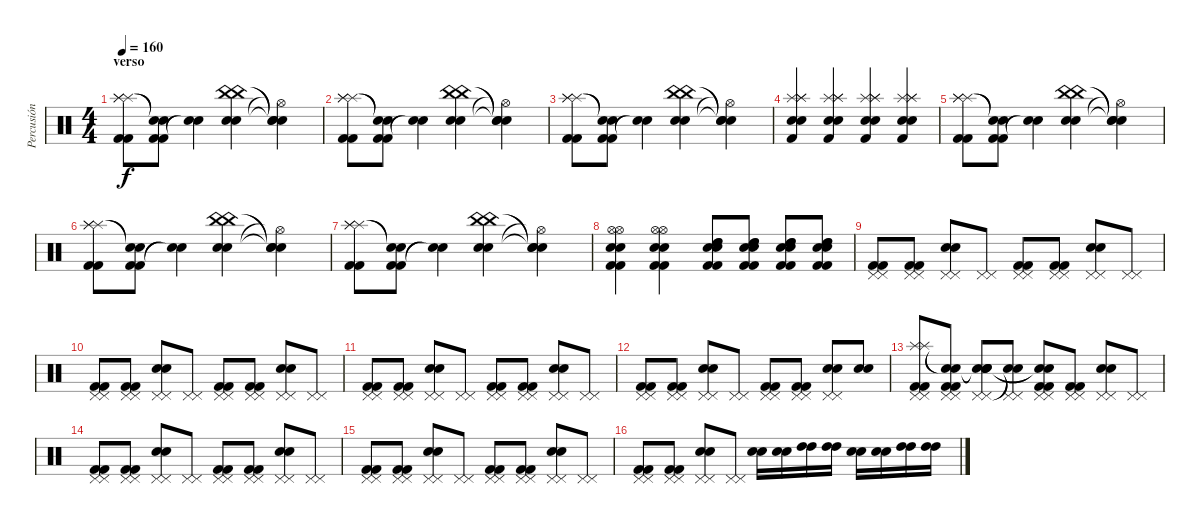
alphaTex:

\track ("Percusión" "Percusión") {instrument percussion}
\staff {score}
\articulation defaults
\ts (4 4)
\section ("" "verso")
\tempo 160
\clef neutral
\ks c
("Kick (hit) 2" "Kick (hit) 2" "Splash (hit)" "Splash (hit)" "Splash (hit)").8{dy f} ("Kick (hit) 2" "Kick (hit) 2" "Snare (hit)"{t} "Snare (hit)"{t}).8 ("Snare (hit)"{t} "Snare (hit)"{t}).4 ("Snare (hit) 2" "Snare (hit) 2" "China (hit)" "China (hit)").4 ("Hi-Hat (open)"{t} "Snare (hit)"{t} "Snare (hit)"{t} "Snare (hit)"{t}).4 |
("Kick (hit) 2" "Kick (hit) 2" "Splash (hit)" "Splash (hit)" "Splash (hit)").8 ("Kick (hit) 2" "Kick (hit) 2" "Snare (hit)"{t} "Snare (hit)"{t}).8 ("Snare (hit)"{t} "Snare (hit)"{t}).4 ("Snare (hit) 2" "Snare (hit) 2" "China (hit)" "China (hit)").4 ("Hi-Hat (open)"{t} "Snare (hit)"{t} "Snare (hit)"{t} "Snare (hit)"{t}).4 |
("Kick (hit) 2" "Kick (hit) 2" "Splash (hit)" "Splash (hit)" "Splash (hit)").8 ("Kick (hit) 2" "Kick (hit) 2" "Snare (hit)"{t} "Snare (hit)"{t}).8 ("Snare (hit)"{t} "Snare (hit)"{t}).4 ("Snare (hit) 2" "Snare (hit) 2" "China (hit)" "China (hit)").4 ("Hi-Hat (open)"{t} "Snare (hit)"{t} "Snare (hit)"{t} "Snare (hit)"{t}).4 |
("Snare (hit) 2" "Snare (hit) 2" "Splash (hit)" "Splash (hit)" "Splash (hit)" "Kick (hit) 2").4 ("Snare (hit) 2" "Snare (hit) 2" "Splash (hit)" "Splash (hit)" "Splash (hit)" "Kick (hit) 2").4 ("Snare (hit) 2" "Snare (hit) 2" "Splash (hit)" "Splash (hit)" "Splash (hit)" "Kick (hit) 2").4 ("Snare (hit) 2" "Snare (hit) 2" "Splash (hit)" "Splash (hit)" "Splash (hit)" "Kick (hit) 2").4 |
("Kick (hit) 2" "Kick (hit) 2" "Splash (hit)" "Splash (hit)" "Splash (hit)").8 ("Kick (hit) 2" "Kick (hit) 2" "Snare (hit)"{t} "Snare (hit)"{t}).8 ("Snare (hit)"{t} "Snare (hit)"{t}).4 ("Snare (hit) 2" "Snare (hit) 2" "China (hit)" "China (hit)").4 ("Hi-Hat (open)"{t} "Snare (hit)"{t} "Snare (hit)"{t} "Snare (hit)"{t}).4 |
("Kick (hit) 2" "Kick (hit) 2" "Splash (hit)" "Splash (hit)" "Splash (hit)").8 ("Kick (hit) 2" "Kick (hit) 2" "Snare (hit)"{t} "Snare (hit)"{t}).8 ("Snare (hit)"{t} "Snare (hit)"{t}).4 ("Snare (hit) 2" "Snare (hit) 2" "China (hit)" "China (hit)").4 ("Hi-Hat (open)"{t} "Snare (hit)"{t} "Snare (hit)"{t} "Snare (hit)"{t}).4 |
("Kick (hit) 2" "Kick (hit) 2" "Splash (hit)" "Splash (hit)" "Splash (hit)").8 ("Kick (hit) 2" "Kick (hit) 2" "Snare (hit)"{t} "Snare (hit)"{t}).8 ("Snare (hit)"{t} "Snare (hit)"{t}).4 ("Snare (hit) 2" "Snare (hit) 2" "China (hit)" "China (hit)").4 ("Hi-Hat (open)"{t} "Snare (hit)"{t} "Snare (hit)"{t} "Snare (hit)"{t}).4 |
("Snare (hit) 2" "Snare (hit) 2" "Hi-Hat (open)" "Hi-Hat (open)" "Kick (hit) 2" "Kick (hit) 2").4 ("Snare (hit) 2" "Snare (hit) 2" "Hi-Hat (open)" "Hi-Hat (open)" "Kick (hit) 2" "Kick (hit) 2").4 ("Snare (hit) 2" "Snare (hit) 2" "High Tom (hit)" "High Tom (hit)" "Kick (hit) 2" "Kick (hit) 2").8 ("Snare (hit) 2" "Snare (hit) 2" "High Tom (hit)" "High Tom (hit)" "Kick (hit) 2" "Kick (hit) 2").8 ("Snare (hit) 2" "Snare (hit) 2" "High Tom (hit)" "High Tom (hit)" "Kick (hit) 2" "Kick (hit) 2").8 ("Snare (hit) 2" "Snare (hit) 2" "High Tom (hit)" "High Tom (hit)" "Kick (hit) 2" "Kick (hit) 2").8 |
("Kick (hit) 2" "Kick (hit) 2" "Pedal Hi-Hat (hit)" "Pedal Hi-Hat (hit)").8 ("Kick (hit) 2" "Kick (hit) 2" "Pedal Hi-Hat (hit)" "Pedal Hi-Hat (hit)").8 ("Snare (hit) 2" "Snare (hit) 2" "Pedal Hi-Hat (hit)" "Pedal Hi-Hat (hit)").8 ("Pedal Hi-Hat (hit)" "Pedal Hi-Hat (hit)").8 ("Kick (hit) 2" "Kick (hit) 2" "Pedal Hi-Hat (hit)" "Pedal Hi-Hat (hit)").8 ("Kick (hit) 2" "Kick (hit) 2" "Pedal Hi-Hat (hit)" "Pedal Hi-Hat (hit)").8 ("Snare (hit) 2" "Snare (hit) 2" "Pedal Hi-Hat (hit)" "Pedal Hi-Hat (hit)").8 ("Pedal Hi-Hat (hit)" "Pedal Hi-Hat (hit)").8 |
("Kick (hit) 2" "Kick (hit) 2" "Pedal Hi-Hat (hit)" "Pedal Hi-Hat (hit)").8 ("Kick (hit) 2" "Kick (hit) 2" "Pedal Hi-Hat (hit)" "Pedal Hi-Hat (hit)").8 ("Snare (hit) 2" "Snare (hit) 2" "Pedal Hi-Hat (hit)" "Pedal Hi-Hat (hit)").8 ("Pedal Hi-Hat (hit)" "Pedal Hi-Hat (hit)").8 ("Kick (hit) 2" "Kick (hit) 2" "Pedal Hi-Hat (hit)" "Pedal Hi-Hat (hit)").8 ("Kick (hit) 2" "Kick (hit) 2" "Pedal Hi-Hat (hit)" "Pedal Hi-Hat (hit)").8 ("Snare (hit) 2" "Snare (hit) 2" "Pedal Hi-Hat (hit)" "Pedal Hi-Hat (hit)").8 ("Pedal Hi-Hat (hit)" "Pedal Hi-Hat (hit)").8 |
("Kick (hit) 2" "Kick (hit) 2" "Pedal Hi-Hat (hit)" "Pedal Hi-Hat (hit)").8 ("Kick (hit) 2" "Kick (hit) 2" "Pedal Hi-Hat (hit)" "Pedal Hi-Hat (hit)").8 ("Snare (hit) 2" "Snare (hit) 2" "Pedal Hi-Hat (hit)" "Pedal Hi-Hat (hit)").8 ("Pedal Hi-Hat (hit)" "Pedal Hi-Hat (hit)").8 ("Kick (hit) 2" "Kick (hit) 2" "Pedal Hi-Hat (hit)" "Pedal Hi-Hat (hit)").8 ("Kick (hit) 2" "Kick (hit) 2" "Pedal Hi-Hat (hit)" "Pedal Hi-Hat (hit)").8 ("Snare (hit) 2" "Snare (hit) 2" "Pedal Hi-Hat (hit)" "Pedal Hi-Hat (hit)").8 ("Pedal Hi-Hat (hit)" "Pedal Hi-Hat (hit)").8 |
("Kick (hit) 2" "Kick (hit) 2" "Pedal Hi-Hat (hit)" "Pedal Hi-Hat (hit)").8 ("Kick (hit) 2" "Kick (hit) 2" "Pedal Hi-Hat (hit)" "Pedal Hi-Hat (hit)").8 ("Snare (hit) 2" "Snare (hit) 2" "Pedal Hi-Hat (hit)" "Pedal Hi-Hat (hit)").8 ("Pedal Hi-Hat (hit)" "Pedal Hi-Hat (hit)").8 ("Kick (hit) 2" "Kick (hit) 2" "Pedal Hi-Hat (hit)" "Pedal Hi-Hat (hit)").8 ("Kick (hit) 2" "Kick (hit) 2" "Pedal Hi-Hat (hit)" "Pedal Hi-Hat (hit)").8 ("Snare (hit) 2" "Snare (hit) 2" "Pedal Hi-Hat (hit)" "Pedal Hi-Hat (hit)").8 ("Snare (hit) 2" "Snare (hit) 2").8 |
("Kick (hit) 2" "Kick (hit) 2" "Pedal Hi-Hat (hit)" "Pedal Hi-Hat (hit)" "Splash (hit)" "Splash (hit)").8 ("Kick (hit) 2" "Kick (hit) 2" "Pedal Hi-Hat (hit)" "Pedal Hi-Hat (hit)" "Snare (hit)"{t} "Snare (hit)"{t}).8 ("Snare (hit) 2" "Snare (hit) 2" "Pedal Hi-Hat (hit)" "Pedal Hi-Hat (hit)" "Snare (hit)"{t} "Snare (hit)"{t}).8 ("Pedal Hi-Hat (hit)" "Pedal Hi-Hat (hit)" "Snare (hit)"{t} "Snare (hit)"{t}).8 ("Kick (hit) 2" "Kick (hit) 2" "Pedal Hi-Hat (hit)" "Pedal Hi-Hat (hit)" "Snare (hit)"{t} "Snare (hit)"{t}).8 ("Kick (hit) 2" "Kick (hit) 2" "Pedal Hi-Hat (hit)" "Pedal Hi-Hat (hit)").8 ("Snare (hit) 2" "Snare (hit) 2" "Pedal Hi-Hat (hit)" "Pedal Hi-Hat (hit)").8 ("Pedal Hi-Hat (hit)" "Pedal Hi-Hat (hit)").8 |
("Kick (hit) 2" "Kick (hit) 2" "Pedal Hi-Hat (hit)" "Pedal Hi-Hat (hit)").8 ("Kick (hit) 2" "Kick (hit) 2" "Pedal Hi-Hat (hit)" "Pedal Hi-Hat (hit)").8 ("Snare (hit) 2" "Snare (hit) 2" "Pedal Hi-Hat (hit)" "Pedal Hi-Hat (hit)").8 ("Pedal Hi-Hat (hit)" "Pedal Hi-Hat (hit)").8 ("Kick (hit) 2" "Kick (hit) 2" "Pedal Hi-Hat (hit)" "Pedal Hi-Hat (hit)").8 ("Kick (hit) 2" "Kick (hit) 2" "Pedal Hi-Hat (hit)" "Pedal Hi-Hat (hit)").8 ("Snare (hit) 2" "Snare (hit) 2" "Pedal Hi-Hat (hit)" "Pedal Hi-Hat (hit)").8 ("Pedal Hi-Hat (hit)" "Pedal Hi-Hat (hit)").8 |
("Kick (hit) 2" "Kick (hit) 2" "Pedal Hi-Hat (hit)" "Pedal Hi-Hat (hit)").8 ("Kick (hit) 2" "Kick (hit) 2" "Pedal Hi-Hat (hit)" "Pedal Hi-Hat (hit)").8 ("Snare (hit) 2" "Snare (hit) 2" "Pedal Hi-Hat (hit)" "Pedal Hi-Hat (hit)").8 ("Pedal Hi-Hat (hit)" "Pedal Hi-Hat (hit)").8 ("Kick (hit) 2" "Kick (hit) 2" "Pedal Hi-Hat (hit)" "Pedal Hi-Hat (hit)").8 ("Kick (hit) 2" "Kick (hit) 2" "Pedal Hi-Hat (hit)" "Pedal Hi-Hat (hit)").8 ("Snare (hit) 2" "Snare (hit) 2" "Pedal Hi-Hat (hit)" "Pedal Hi-Hat (hit)").8 ("Pedal Hi-Hat (hit)" "Pedal Hi-Hat (hit)").8 |
("Kick (hit) 2" "Kick (hit) 2" "Pedal Hi-Hat (hit)" "Pedal Hi-Hat (hit)").8 ("Kick (hit) 2" "Kick (hit) 2" "Pedal Hi-Hat (hit)" "Pedal Hi-Hat (hit)").8 ("Snare (hit) 2" "Snare (hit) 2" "Pedal Hi-Hat (hit)" "Pedal Hi-Hat (hit)").8 ("Pedal Hi-Hat (hit)" "Pedal Hi-Hat (hit)").8 ("Snare (hit) 2" "Snare (hit) 2").16 ("Snare (hit) 2" "Snare (hit) 2").16 ("High Tom (hit)" "High Tom (hit)").16 ("High Tom (hit)" "High Tom (hit)").16 ("Snare (hit) 2" "Snare (hit) 2").16 ("Snare (hit) 2" "Snare (hit) 2").16 ("High Tom (hit)" "High Tom (hit)").16 ("High Tom (hit)" "High Tom (hit)").16
